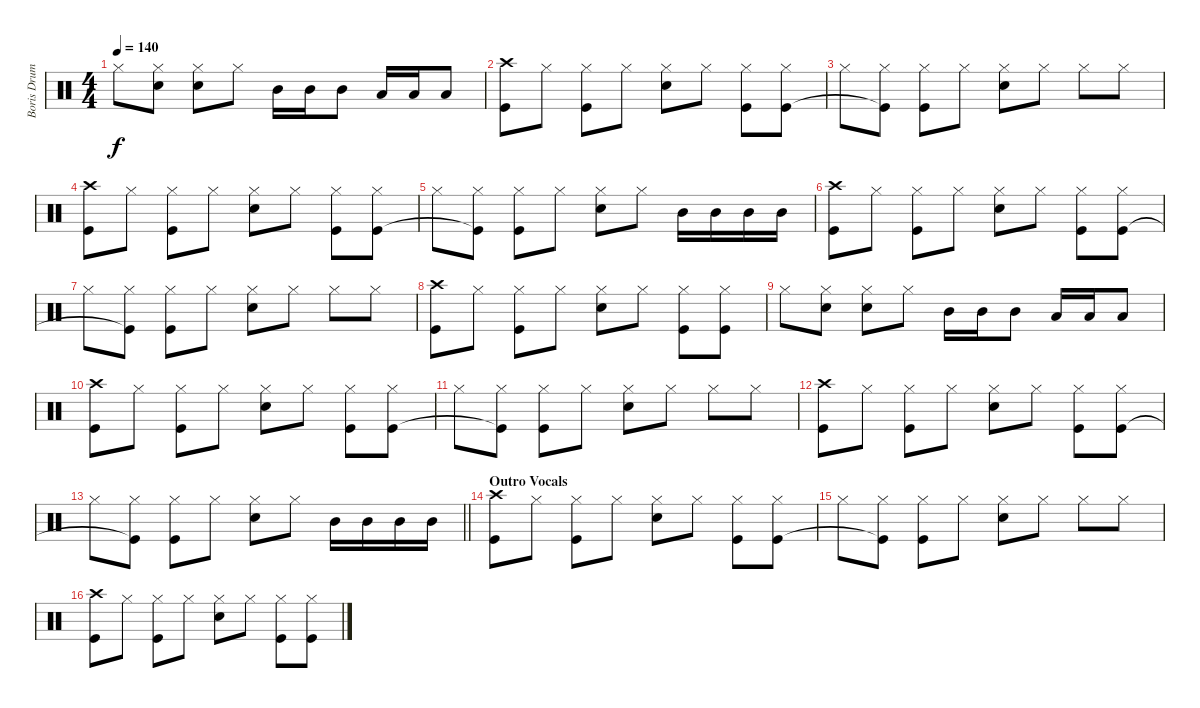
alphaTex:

\track ("Boris Drums" "Boris Drum") {instrument percussion}
\staff {score}
\articulation defaults
\ts (4 4)
\tempo 140
\clef neutral
\ks c "Hi-Hat (closed)".8{dy f}
("Hi-Hat (closed)" "Electric Snare (hit)").8 ("Hi-Hat (closed)" "Electric Snare (hit)").8 "Hi-Hat (closed)".8 "Mid Tom (hit)".16 "Mid Tom (hit)".16 "Mid Tom (hit)".8 "Low Tom (hit)".16 "Low Tom (hit)".16 "Low Tom (hit)".8 |
("Crash high (hit)" "Kick (hit)").8 "Hi-Hat (closed)".8 ("Hi-Hat (closed)" "Kick (hit)").8 "Hi-Hat (closed)".8 ("Hi-Hat (closed)" "Electric Snare (hit)").8 "Hi-Hat (closed)".8 ("Hi-Hat (closed)" "Kick (hit)").8 ("Hi-Hat (closed)" "Kick (hit)").8 |
"Hi-Hat (closed)".8 ("Hi-Hat (closed)" "Kick (hit)"{t}).8 ("Hi-Hat (closed)" "Kick (hit)").8 "Hi-Hat (closed)".8 ("Hi-Hat (closed)" "Electric Snare (hit)").8 "Hi-Hat (closed)".8 "Hi-Hat (closed)".8 "Hi-Hat (closed)".8 |
("Crash high (hit)" "Kick (hit)").8 "Hi-Hat (closed)".8 ("Hi-Hat (closed)" "Kick (hit)").8 "Hi-Hat (closed)".8 ("Hi-Hat (closed)" "Electric Snare (hit)").8 "Hi-Hat (closed)".8 ("Hi-Hat (closed)" "Kick (hit)").8 ("Hi-Hat (closed)" "Kick (hit)").8 |
"Hi-Hat (closed)".8 ("Hi-Hat (closed)" "Kick (hit)"{t}).8 ("Hi-Hat (closed)" "Kick (hit)").8 "Hi-Hat (closed)".8 ("Hi-Hat (closed)" "Electric Snare (hit)").8 "Hi-Hat (closed)".8 "Mid Tom (hit)".16 "Mid Tom (hit)".16 "Mid Tom (hit)".16 "Mid Tom (hit)".16 |
("Crash high (hit)" "Kick (hit)").8 "Hi-Hat (closed)".8 ("Hi-Hat (closed)" "Kick (hit)").8 "Hi-Hat (closed)".8 ("Hi-Hat (closed)" "Electric Snare (hit)").8 "Hi-Hat (closed)".8 ("Hi-Hat (closed)" "Kick (hit)").8 ("Hi-Hat (closed)" "Kick (hit)").8 |
"Hi-Hat (closed)".8 ("Hi-Hat (closed)" "Kick (hit)"{t}).8 ("Hi-Hat (closed)" "Kick (hit)").8 "Hi-Hat (closed)".8 ("Hi-Hat (closed)" "Electric Snare (hit)").8 "Hi-Hat (closed)".8 "Hi-Hat (closed)".8 "Hi-Hat (closed)".8 |
("Crash high (hit)" "Kick (hit)").8 "Hi-Hat (closed)".8 ("Hi-Hat (closed)" "Kick (hit)").8 "Hi-Hat (closed)".8 ("Hi-Hat (closed)" "Electric Snare (hit)").8 "Hi-Hat (closed)".8 ("Hi-Hat (closed)" "Kick (hit)").8 ("Hi-Hat (closed)" "Kick (hit)").8 |
"Hi-Hat (closed)".8 ("Hi-Hat (closed)" "Electric Snare (hit)").8 ("Hi-Hat (closed)" "Electric Snare (hit)").8 "Hi-Hat (closed)".8 "Mid Tom (hit)".16 "Mid Tom (hit)".16 "Mid Tom (hit)".8 "Low Tom (hit)".16 "Low Tom (hit)".16 "Low Tom (hit)".8 |
("Crash high (hit)" "Kick (hit)").8 "Hi-Hat (closed)".8 ("Hi-Hat (closed)" "Kick (hit)").8 "Hi-Hat (closed)".8 ("Hi-Hat (closed)" "Electric Snare (hit)").8 "Hi-Hat (closed)".8 ("Hi-Hat (closed)" "Kick (hit)").8 ("Hi-Hat (closed)" "Kick (hit)").8 |
"Hi-Hat (closed)".8 ("Hi-Hat (closed)" "Kick (hit)"{t}).8 ("Hi-Hat (closed)" "Kick (hit)").8 "Hi-Hat (closed)".8 ("Hi-Hat (closed)" "Electric Snare (hit)").8 "Hi-Hat (closed)".8 "Hi-Hat (closed)".8 "Hi-Hat (closed)".8 |
("Crash high (hit)" "Kick (hit)").8 "Hi-Hat (closed)".8 ("Hi-Hat (closed)" "Kick (hit)").8 "Hi-Hat (closed)".8 ("Hi-Hat (closed)" "Electric Snare (hit)").8 "Hi-Hat (closed)".8 ("Hi-Hat (closed)" "Kick (hit)").8 ("Hi-Hat (closed)" "Kick (hit)").8 |
\barLineRight lightlight "Hi-Hat (closed)".8
("Hi-Hat (closed)" "Kick (hit)"{t}).8 ("Hi-Hat (closed)" "Kick (hit)").8 "Hi-Hat (closed)".8 ("Hi-Hat (closed)" "Electric Snare (hit)").8 "Hi-Hat (closed)".8 "Mid Tom (hit)".16 "Mid Tom (hit)".16 "Mid Tom (hit)".16 "Mid Tom (hit)".16 |
\section ("" "Outro Vocals")
("Crash high (hit)" "Kick (hit)").8 "Hi-Hat (closed)".8 ("Hi-Hat (closed)" "Kick (hit)").8 "Hi-Hat (closed)".8 ("Hi-Hat (closed)" "Electric Snare (hit)").8 "Hi-Hat (closed)".8 ("Hi-Hat (closed)" "Kick (hit)").8 ("Hi-Hat (closed)" "Kick (hit)").8 |
"Hi-Hat (closed)".8 ("Hi-Hat (closed)" "Kick (hit)"{t}).8 ("Hi-Hat (closed)" "Kick (hit)").8 "Hi-Hat (closed)".8 ("Hi-Hat (closed)" "Electric Snare (hit)").8 "Hi-Hat (closed)".8 "Hi-Hat (closed)".8 "Hi-Hat (closed)".8 |
("Crash high (hit)" "Kick (hit)").8 "Hi-Hat (closed)".8 ("Hi-Hat (closed)" "Kick (hit)").8 "Hi-Hat (closed)".8 ("Hi-Hat (closed)" "Electric Snare (hit)").8 "Hi-Hat (closed)".8 ("Hi-Hat (closed)" "Kick (hit)").8 ("Hi-Hat (closed)" "Kick (hit)").8
